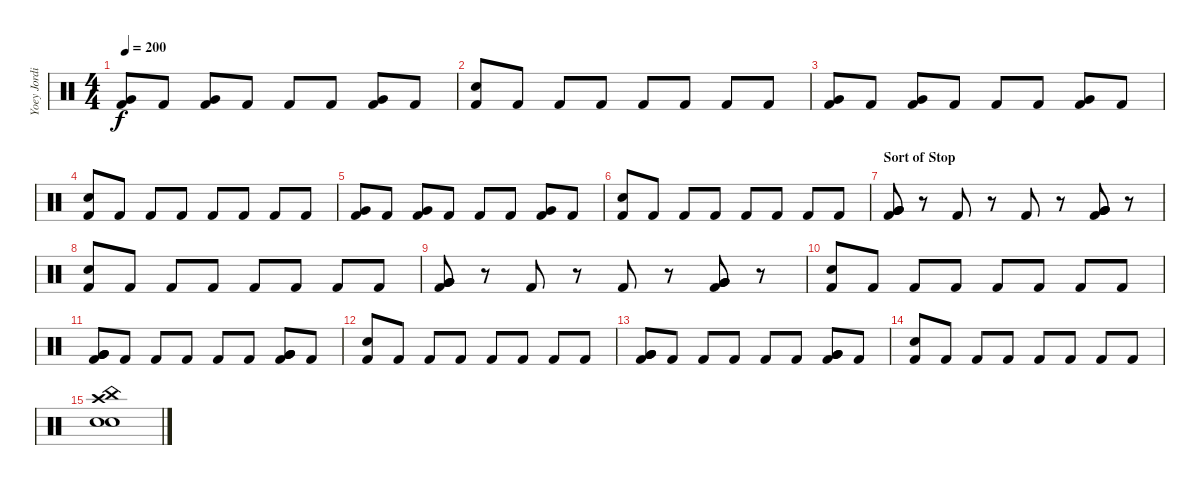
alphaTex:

\track ("Yoey Jordison" "Yoey Jordi") {instrument percussion}
\staff {score}
\articulation defaults
\ts (4 4)
\tempo 200
\clef neutral
\ks c
("Kick (hit) 2" "Very Low Tom (hit)").8{dy f} "Kick (hit) 2".8 ("Kick (hit) 2" "Very Low Tom (hit)").8 "Kick (hit) 2".8 "Kick (hit) 2".8 "Kick (hit) 2".8 ("Kick (hit) 2" "Very Low Tom (hit)").8 "Kick (hit) 2".8 |
("Kick (hit) 2" "Snare (hit) 2").8 "Kick (hit) 2".8 "Kick (hit) 2".8 "Kick (hit) 2".8 "Kick (hit) 2".8 "Kick (hit) 2".8 "Kick (hit) 2".8 "Kick (hit) 2".8 |
("Kick (hit) 2" "Very Low Tom (hit)").8 "Kick (hit) 2".8 ("Kick (hit) 2" "Very Low Tom (hit)").8 "Kick (hit) 2".8 "Kick (hit) 2".8 "Kick (hit) 2".8 ("Kick (hit) 2" "Very Low Tom (hit)").8 "Kick (hit) 2".8 |
("Kick (hit) 2" "Snare (hit) 2").8 "Kick (hit) 2".8 "Kick (hit) 2".8 "Kick (hit) 2".8 "Kick (hit) 2".8 "Kick (hit) 2".8 "Kick (hit) 2".8 "Kick (hit) 2".8 |
("Kick (hit) 2" "Very Low Tom (hit)").8 "Kick (hit) 2".8 ("Kick (hit) 2" "Very Low Tom (hit)").8 "Kick (hit) 2".8 "Kick (hit) 2".8 "Kick (hit) 2".8 ("Kick (hit) 2" "Very Low Tom (hit)").8 "Kick (hit) 2".8 |
("Kick (hit) 2" "Snare (hit) 2").8 "Kick (hit) 2".8 "Kick (hit) 2".8 "Kick (hit) 2".8 "Kick (hit) 2".8 "Kick (hit) 2".8 "Kick (hit) 2".8 "Kick (hit) 2".8 |
\section ("" "Sort of Stop")
("Very Low Tom (hit)" "Very Low Tom (hit)" "Kick (hit) 2" "Very Low Tom (hit)").8 r.8 "Kick (hit) 2".8 r.8 "Kick (hit) 2".8 r.8 ("Very Low Tom (hit)" "Very Low Tom (hit)" "Kick (hit) 2" "Very Low Tom (hit)").8 r.8 |
("Kick (hit) 2" "Snare (hit) 2").8 "Kick (hit) 2".8 "Kick (hit) 2".8 "Kick (hit) 2".8 "Kick (hit) 2".8 "Kick (hit) 2".8 "Kick (hit) 2".8 "Kick (hit) 2".8 |
("Very Low Tom (hit)" "Very Low Tom (hit)" "Kick (hit) 2" "Very Low Tom (hit)").8 r.8 "Kick (hit) 2".8 r.8 "Kick (hit) 2".8 r.8 ("Very Low Tom (hit)" "Very Low Tom (hit)" "Kick (hit) 2" "Very Low Tom (hit)").8 r.8 |
("Kick (hit) 2" "Snare (hit) 2").8 "Kick (hit) 2".8 "Kick (hit) 2".8 "Kick (hit) 2".8 "Kick (hit) 2".8 "Kick (hit) 2".8 "Kick (hit) 2".8 "Kick (hit) 2".8 |
("Very Low Tom (hit)" "Very Low Tom (hit)" "Kick (hit) 2" "Very Low Tom (hit)").8 "Kick (hit) 2".8 "Kick (hit) 2".8 "Kick (hit) 2".8 "Kick (hit) 2".8 "Kick (hit) 2".8 ("Very Low Tom (hit)" "Very Low Tom (hit)" "Kick (hit) 2" "Very Low Tom (hit)").8 "Kick (hit) 2".8 |
("Kick (hit) 2" "Snare (hit) 2").8 "Kick (hit) 2".8 "Kick (hit) 2".8 "Kick (hit) 2".8 "Kick (hit) 2".8 "Kick (hit) 2".8 "Kick (hit) 2".8 "Kick (hit) 2".8 |
("Very Low Tom (hit)" "Very Low Tom (hit)" "Kick (hit) 2" "Very Low Tom (hit)").8 "Kick (hit) 2".8 "Kick (hit) 2".8 "Kick (hit) 2".8 "Kick (hit) 2".8 "Kick (hit) 2".8 ("Very Low Tom (hit)" "Very Low Tom (hit)" "Kick (hit) 2" "Very Low Tom (hit)").8 "Kick (hit) 2".8 |
("Kick (hit) 2" "Snare (hit) 2").8 "Kick (hit) 2".8 "Kick (hit) 2".8 "Kick (hit) 2".8 "Kick (hit) 2".8 "Kick (hit) 2".8 "Kick (hit) 2".8 "Kick (hit) 2".8 |
("Crash high (hit)" "China (hit)" "Electric Snare (hit)" "Snare (hit) 2").1
